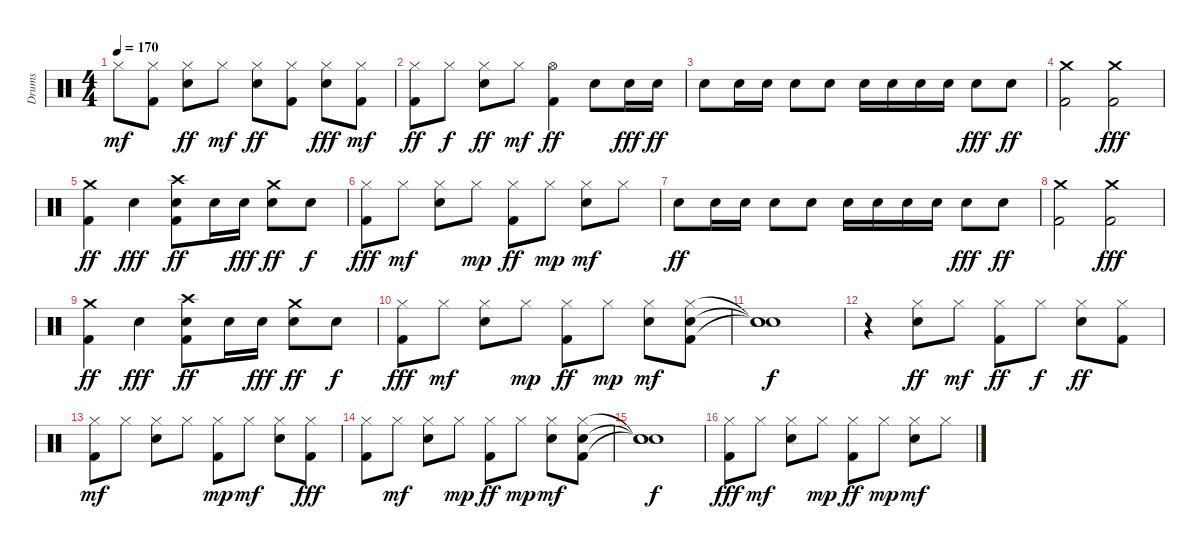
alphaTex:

\track ("Drums" "Drums") {instrument percussion}
\staff {score}
\articulation defaults
\ts (4 4)
\tempo 170
\clef neutral
\ks c "Hi-Hat (closed)".8{dy mf}
("Hi-Hat (closed)" "Kick (hit) 2").8 ("Hi-Hat (closed)" "Snare (hit) 2").8{dy ff} "Hi-Hat (closed)".8{dy mf} ("Hi-Hat (closed)" "Snare (hit) 2").8{dy ff} ("Hi-Hat (closed)" "Kick (hit) 2").8 ("Hi-Hat (closed)" "Snare (hit) 2").8{dy fff} ("Hi-Hat (closed)" "Kick (hit) 2").8{dy mf} |
("Hi-Hat (closed)" "Kick (hit) 2").8{dy ff} "Hi-Hat (closed)".8{dy f} ("Hi-Hat (closed)" "Snare (hit) 2").8{dy ff} "Hi-Hat (closed)".8{dy mf} ("Kick (hit) 2" "Hi-Hat (open)").4{dy ff} "Snare (hit) 2".8 "Snare (hit) 2".16{dy fff} "Snare (hit) 2".16{dy ff} |
"Snare (hit) 2".8 "Snare (hit) 2".16 "Snare (hit) 2".16 "Snare (hit) 2".8 "Snare (hit) 2".8 "Snare (hit) 2".16 "Snare (hit) 2".16 "Snare (hit) 2".16 "Snare (hit) 2".16 "Snare (hit) 2".8{dy fff} "Snare (hit) 2".8{dy ff} |
("Kick (hit) 2" "Crash medium (hit)").2 ("Kick (hit) 2" "Crash medium (hit)").2{dy fff} |
("Crash medium (hit)" "Kick (hit) 2").4{dy ff} "Snare (hit) 2".4{dy fff} ("Snare (hit) 2" "Kick (hit) 2" "Crash high (hit)").8{dy ff} "Snare (hit) 2".16 "Snare (hit) 2".16{dy fff} ("Snare (hit) 2" "Crash medium (hit)").8{dy ff} "Snare (hit) 2".8{dy f} |
("Hi-Hat (closed)" "Kick (hit) 2").8{dy fff} "Hi-Hat (closed)".8{dy mf} ("Hi-Hat (closed)" "Snare (hit) 2").8 "Hi-Hat (closed)".8{dy mp} ("Hi-Hat (closed)" "Kick (hit) 2").8{dy ff} "Hi-Hat (closed)".8{dy mp} ("Hi-Hat (closed)" "Snare (hit) 2").8{dy mf} "Hi-Hat (closed)".8 |
"Snare (hit) 2".8{dy ff} "Snare (hit) 2".16 "Snare (hit) 2".16 "Snare (hit) 2".8 "Snare (hit) 2".8 "Snare (hit) 2".16 "Snare (hit) 2".16 "Snare (hit) 2".16 "Snare (hit) 2".16 "Snare (hit) 2".8{dy fff} "Snare (hit) 2".8{dy ff} |
("Kick (hit) 2" "Crash medium (hit)").2 ("Kick (hit) 2" "Crash medium (hit)").2{dy fff} |
("Crash medium (hit)" "Kick (hit) 2").4{dy ff} "Snare (hit) 2".4{dy fff} ("Snare (hit) 2" "Kick (hit) 2" "Crash high (hit)").8{dy ff} "Snare (hit) 2".16 "Snare (hit) 2".16{dy fff} ("Snare (hit) 2" "Crash medium (hit)").8{dy ff} "Snare (hit) 2".8{dy f} |
("Hi-Hat (closed)" "Kick (hit) 2").8{dy fff} "Hi-Hat (closed)".8{dy mf} ("Hi-Hat (closed)" "Snare (hit) 2").8 "Hi-Hat (closed)".8{dy mp} ("Hi-Hat (closed)" "Kick (hit) 2").8{dy ff} "Hi-Hat (closed)".8{dy mp} ("Hi-Hat (closed)" "Snare (hit) 2").8{dy mf} ("Hi-Hat (closed)" "Kick (hit) 2" "Snare (hit) 2").8 |
("Snare (hit)"{t} "Snare (hit)"{t} "Snare (hit)"{t}).1{dy f} |
r.4 ("Hi-Hat (closed)" "Snare (hit) 2").8{dy ff} "Hi-Hat (closed)".8{dy mf} ("Hi-Hat (closed)" "Kick (hit) 2").8{dy ff} "Hi-Hat (closed)".8{dy f} ("Hi-Hat (closed)" "Snare (hit) 2").8{dy ff} ("Hi-Hat (closed)" "Kick (hit) 2").8 |
("Hi-Hat (closed)" "Kick (hit) 2").8{dy mf} "Hi-Hat (closed)".8 ("Hi-Hat (closed)" "Snare (hit) 2").8 "Hi-Hat (closed)".8 ("Hi-Hat (closed)" "Kick (hit) 2").8{dy mp} "Hi-Hat (closed)".8{dy mf} ("Hi-Hat (closed)" "Snare (hit) 2").8 ("Hi-Hat (closed)" "Kick (hit) 2").8{dy fff} |
("Hi-Hat (closed)" "Kick (hit) 2").8 "Hi-Hat (closed)".8{dy mf} ("Hi-Hat (closed)" "Snare (hit) 2").8 "Hi-Hat (closed)".8{dy mp} ("Hi-Hat (closed)" "Kick (hit) 2").8{dy ff} "Hi-Hat (closed)".8{dy mp} ("Hi-Hat (closed)" "Snare (hit) 2").8{dy mf} ("Hi-Hat (closed)" "Kick (hit) 2" "Snare (hit) 2").8 |
("Snare (hit)"{t} "Snare (hit)"{t} "Snare (hit)"{t}).1{dy f} |
("Hi-Hat (closed)" "Kick (hit) 2").8{dy fff} "Hi-Hat (closed)".8{dy mf} ("Hi-Hat (closed)" "Snare (hit) 2").8 "Hi-Hat (closed)".8{dy mp} ("Hi-Hat (closed)" "Kick (hit) 2").8{dy ff} "Hi-Hat (closed)".8{dy mp} ("Hi-Hat (closed)" "Snare (hit) 2").8{dy mf} "Hi-Hat (closed)".8
